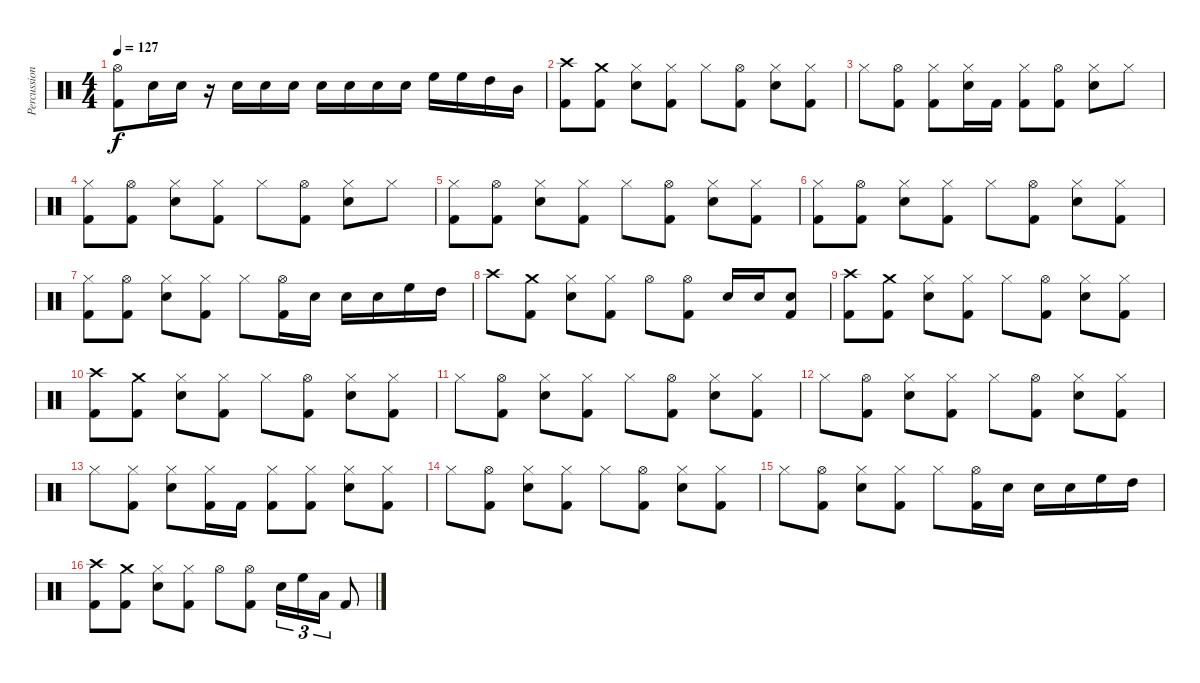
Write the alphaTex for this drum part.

\track ("Percussion" "Percussion") {instrument percussion}
\staff {score}
\articulation defaults
\ts (4 4)
\tempo 127
\clef neutral
\ks c
("Kick (hit) 2" "Hi-Hat (open)").8{dy f} "Snare (hit) 2".16 "Snare (hit) 2".16 r.16 "Snare (hit) 2".16 "Snare (hit) 2".16 "Snare (hit) 2".16 "Snare (hit) 2".16 "Snare (hit) 2".16 "Snare (hit) 2".16 "Snare (hit) 2".16 "High Floor Tom (hit)".16 "High Floor Tom (hit)".16 "High Tom (hit)".16 "Mid Tom (hit)".16 |
("Kick (hit) 2" "Crash high (hit)").8 ("Kick (hit) 2" "Crash medium (hit)").8 ("Snare (hit) 2" "Hi-Hat (closed)").8 ("Kick (hit) 2" "Hi-Hat (closed)").8 "Hi-Hat (closed)".8 ("Kick (hit) 2" "Hi-Hat (open)").8 ("Snare (hit) 2" "Hi-Hat (closed)").8 ("Kick (hit) 2" "Hi-Hat (closed)").8 |
"Hi-Hat (closed)".8 ("Kick (hit) 2" "Hi-Hat (open)").8 ("Kick (hit) 2" "Hi-Hat (closed)").8 ("Snare (hit) 2" "Hi-Hat (closed)").16 "Kick (hit) 2".16 ("Kick (hit) 2" "Hi-Hat (closed)").8 ("Kick (hit) 2" "Hi-Hat (open)").8 ("Snare (hit) 2" "Hi-Hat (closed)").8 "Hi-Hat (closed)".8 |
("Kick (hit) 2" "Hi-Hat (closed)").8 ("Kick (hit) 2" "Hi-Hat (open)").8 ("Snare (hit) 2" "Hi-Hat (closed)").8 ("Kick (hit) 2" "Hi-Hat (closed)").8 "Hi-Hat (closed)".8 ("Kick (hit) 2" "Hi-Hat (open)").8 ("Snare (hit) 2" "Hi-Hat (closed)").8 "Hi-Hat (closed)".8 |
("Kick (hit) 2" "Hi-Hat (closed)").8 ("Kick (hit) 2" "Hi-Hat (open)").8 ("Snare (hit) 2" "Hi-Hat (closed)").8 ("Kick (hit) 2" "Hi-Hat (closed)").8 "Hi-Hat (closed)".8 ("Kick (hit) 2" "Hi-Hat (open)").8 ("Snare (hit) 2" "Hi-Hat (closed)").8 ("Kick (hit) 2" "Hi-Hat (closed)").8 |
("Kick (hit) 2" "Hi-Hat (closed)").8 ("Kick (hit) 2" "Hi-Hat (open)").8 ("Snare (hit) 2" "Hi-Hat (closed)").8 ("Kick (hit) 2" "Hi-Hat (closed)").8 "Hi-Hat (closed)".8 ("Kick (hit) 2" "Hi-Hat (open)").8 ("Snare (hit) 2" "Hi-Hat (closed)").8 ("Kick (hit) 2" "Hi-Hat (closed)").8 |
("Kick (hit) 2" "Hi-Hat (closed)").8 ("Kick (hit) 2" "Hi-Hat (open)").8 ("Snare (hit) 2" "Hi-Hat (closed)").8 ("Kick (hit) 2" "Hi-Hat (closed)").8 "Hi-Hat (closed)".8 ("Kick (hit) 2" "Hi-Hat (open)").16 "Snare (hit) 2".16 "Snare (hit) 2".16 "Snare (hit) 2".16 "High Floor Tom (hit)".16 "High Tom (hit)".16 |
"Crash high (hit)".8 ("Kick (hit) 2" "Crash medium (hit)").8 ("Snare (hit) 2" "Hi-Hat (closed)").8 ("Kick (hit) 2" "Hi-Hat (closed)").8 "Hi-Hat (open)".8 ("Kick (hit) 2" "Hi-Hat (open)").8 "Snare (hit) 2".16 "Snare (hit) 2".16 ("Snare (hit) 2" "Kick (hit) 2").8 |
("Kick (hit) 2" "Crash high (hit)").8 ("Kick (hit) 2" "Crash medium (hit)").8 ("Snare (hit) 2" "Hi-Hat (closed)").8 ("Kick (hit) 2" "Hi-Hat (closed)").8 "Hi-Hat (closed)".8 ("Kick (hit) 2" "Hi-Hat (open)").8 ("Snare (hit) 2" "Hi-Hat (closed)").8 ("Kick (hit) 2" "Hi-Hat (closed)").8 |
("Kick (hit) 2" "Crash high (hit)").8 ("Kick (hit) 2" "Crash medium (hit)").8 ("Snare (hit) 2" "Hi-Hat (closed)").8 ("Kick (hit) 2" "Hi-Hat (closed)").8 "Hi-Hat (closed)".8 ("Kick (hit) 2" "Hi-Hat (open)").8 ("Snare (hit) 2" "Hi-Hat (closed)").8 ("Kick (hit) 2" "Hi-Hat (closed)").8 |
"Hi-Hat (closed)".8 ("Kick (hit) 2" "Hi-Hat (open)").8 ("Snare (hit) 2" "Hi-Hat (closed)").8 ("Kick (hit) 2" "Hi-Hat (closed)").8 "Hi-Hat (closed)".8 ("Kick (hit) 2" "Hi-Hat (open)").8 ("Snare (hit) 2" "Hi-Hat (closed)").8 ("Kick (hit) 2" "Hi-Hat (closed)").8 |
"Hi-Hat (closed)".8 ("Kick (hit) 2" "Hi-Hat (open)").8 ("Snare (hit) 2" "Hi-Hat (closed)").8 ("Kick (hit) 2" "Hi-Hat (closed)").8 "Hi-Hat (closed)".8 ("Kick (hit) 2" "Hi-Hat (open)").8 ("Snare (hit) 2" "Hi-Hat (closed)").8 ("Kick (hit) 2" "Hi-Hat (closed)").8 |
"Hi-Hat (closed)".8 ("Kick (hit) 2" "Hi-Hat (closed)").8 ("Snare (hit) 2" "Hi-Hat (closed)").8 ("Kick (hit) 2" "Hi-Hat (closed)").16 "Kick (hit) 2".16 ("Kick (hit) 2" "Hi-Hat (closed)").8 ("Kick (hit) 2" "Hi-Hat (closed)").8 ("Snare (hit) 2" "Hi-Hat (closed)").8 ("Kick (hit) 2" "Hi-Hat (closed)").8 |
"Hi-Hat (closed)".8 ("Kick (hit) 2" "Hi-Hat (open)").8 ("Snare (hit) 2" "Hi-Hat (closed)").8 ("Kick (hit) 2" "Hi-Hat (closed)").8 "Hi-Hat (closed)".8 ("Kick (hit) 2" "Hi-Hat (open)").8 ("Snare (hit) 2" "Hi-Hat (closed)").8 ("Kick (hit) 2" "Hi-Hat (closed)").8 |
"Hi-Hat (closed)".8 ("Kick (hit) 2" "Hi-Hat (open)").8 ("Snare (hit) 2" "Hi-Hat (closed)").8 ("Kick (hit) 2" "Hi-Hat (closed)").8 "Hi-Hat (closed)".8 ("Kick (hit) 2" "Hi-Hat (open)").16 "Snare (hit) 2".16 "Snare (hit) 2".16 "Snare (hit) 2".16 "High Floor Tom (hit)".16 "High Tom (hit)".16 |
("Kick (hit) 2" "Crash high (hit)").8 ("Kick (hit) 2" "Crash medium (hit)").8 ("Snare (hit) 2" "Hi-Hat (closed)").8 ("Kick (hit) 2" "Hi-Hat (closed)").8 "Hi-Hat (open)".8 ("Kick (hit) 2" "Hi-Hat (open)").8 "Snare (hit) 2".16{tu (3 2)} "High Floor Tom (hit)".16{tu (3 2)} "Low Tom (hit)".16{tu (3 2)} "Kick (hit) 2".8
